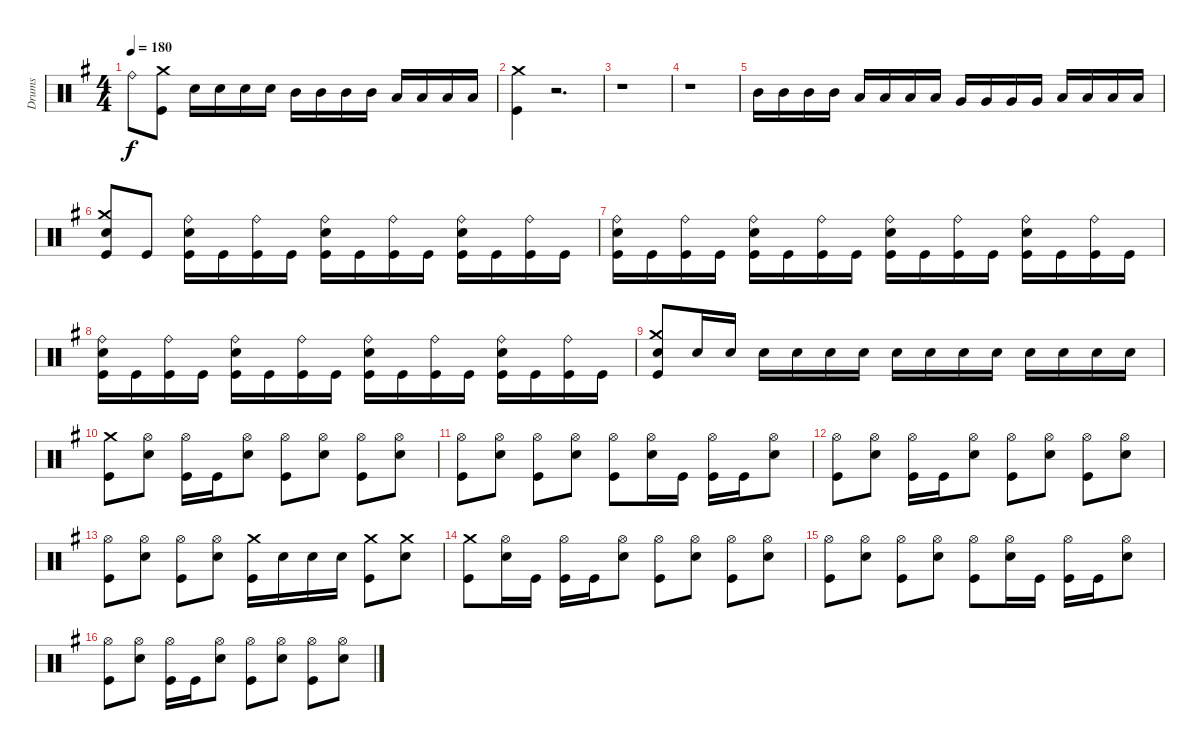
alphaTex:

\track ("Drums" "Drums") {instrument percussion}
\staff {score}
\articulation defaults
\ts (4 4)
\tempo 180
\clef neutral
\ks g "Ride (bell)"{t}.8{dy f}
("Kick (hit)" "Crash medium (hit)").8 "Electric Snare (hit)".16 "Electric Snare (hit)".16 "Electric Snare (hit)".16 "Electric Snare (hit)".16 "Mid Tom (hit)".16 "Mid Tom (hit)".16 "Mid Tom (hit)".16 "Mid Tom (hit)".16 "Low Tom (hit)".16 "Low Tom (hit)".16 "Low Tom (hit)".16 "Low Tom (hit)".16 |
("Kick (hit)" "Crash medium (hit)").4 r.2{d} |
r.1 |
r.1 |
"Mid Tom (hit)".16 "Mid Tom (hit)".16 "Mid Tom (hit)".16 "Mid Tom (hit)".16 "Low Tom (hit)".16 "Low Tom (hit)".16 "Low Tom (hit)".16 "Low Tom (hit)".16 "Very Low Tom (hit)".16 "Very Low Tom (hit)".16 "Very Low Tom (hit)".16 "Very Low Tom (hit)".16 "Low Floor Tom (hit)".16 "Low Floor Tom (hit)".16 "Low Floor Tom (hit)".16 "Low Floor Tom (hit)".16 |
("Kick (hit)" "Electric Snare (hit)" "Crash medium (hit)").8 "Kick (hit)".8 ("Kick (hit)" "Electric Snare (hit)" "Ride (bell)").16 "Kick (hit)".16 ("Kick (hit)" "Ride (bell)").16 "Kick (hit)".16 ("Kick (hit)" "Electric Snare (hit)" "Ride (bell)").16 "Kick (hit)".16 ("Kick (hit)" "Ride (bell)").16 "Kick (hit)".16 ("Kick (hit)" "Electric Snare (hit)" "Ride (bell)").16 "Kick (hit)".16 ("Kick (hit)" "Ride (bell)").16 "Kick (hit)".16 |
("Kick (hit)" "Electric Snare (hit)" "Ride (bell)").16 "Kick (hit)".16 ("Kick (hit)" "Ride (bell)").16 "Kick (hit)".16 ("Kick (hit)" "Electric Snare (hit)" "Ride (bell)").16 "Kick (hit)".16 ("Kick (hit)" "Ride (bell)").16 "Kick (hit)".16 ("Kick (hit)" "Electric Snare (hit)" "Ride (bell)").16 "Kick (hit)".16 ("Kick (hit)" "Ride (bell)").16 "Kick (hit)".16 ("Kick (hit)" "Electric Snare (hit)" "Ride (bell)").16 "Kick (hit)".16 ("Kick (hit)" "Ride (bell)").16 "Kick (hit)".16 |
("Kick (hit)" "Electric Snare (hit)" "Ride (bell)").16 "Kick (hit)".16 ("Kick (hit)" "Ride (bell)").16 "Kick (hit)".16 ("Kick (hit)" "Electric Snare (hit)" "Ride (bell)").16 "Kick (hit)".16 ("Kick (hit)" "Ride (bell)").16 "Kick (hit)".16 ("Kick (hit)" "Electric Snare (hit)" "Ride (bell)").16 "Kick (hit)".16 ("Kick (hit)" "Ride (bell)").16 "Kick (hit)".16 ("Kick (hit)" "Electric Snare (hit)" "Ride (bell)").16 "Kick (hit)".16 ("Kick (hit)" "Ride (bell)").16 "Kick (hit)".16 |
("Kick (hit)" "Electric Snare (hit)" "Crash medium (hit)").8 "Electric Snare (hit)".16 "Electric Snare (hit)".16 "Electric Snare (hit)".16 "Electric Snare (hit)".16 "Electric Snare (hit)".16 "Electric Snare (hit)".16 "Electric Snare (hit)".16 "Electric Snare (hit)".16 "Electric Snare (hit)".16 "Electric Snare (hit)".16 "Electric Snare (hit)".16 "Electric Snare (hit)".16 "Electric Snare (hit)".16 "Electric Snare (hit)".16 |
("Kick (hit)" "Crash medium (hit)").8 ("Electric Snare (hit)" "Hi-Hat (open)").8 ("Kick (hit)" "Hi-Hat (open)").16 "Kick (hit)".16 ("Electric Snare (hit)" "Hi-Hat (open)").8 ("Kick (hit)" "Hi-Hat (open)").8 ("Electric Snare (hit)" "Hi-Hat (open)").8 ("Kick (hit)" "Hi-Hat (open)").8 ("Electric Snare (hit)" "Hi-Hat (open)").8 |
("Kick (hit)" "Hi-Hat (open)").8 ("Electric Snare (hit)" "Hi-Hat (open)").8 ("Kick (hit)" "Hi-Hat (open)").8 ("Electric Snare (hit)" "Hi-Hat (open)").8 ("Kick (hit)" "Hi-Hat (open)").8 ("Electric Snare (hit)" "Hi-Hat (open)").16 "Kick (hit)".16 ("Kick (hit)" "Hi-Hat (open)").16 "Kick (hit)".16 ("Electric Snare (hit)" "Hi-Hat (open)").8 |
("Kick (hit)" "Hi-Hat (open)").8 ("Electric Snare (hit)" "Hi-Hat (open)").8 ("Kick (hit)" "Hi-Hat (open)").16 "Kick (hit)".16 ("Electric Snare (hit)" "Hi-Hat (open)").8 ("Kick (hit)" "Hi-Hat (open)").8 ("Electric Snare (hit)" "Hi-Hat (open)").8 ("Kick (hit)" "Hi-Hat (open)").8 ("Electric Snare (hit)" "Hi-Hat (open)").8 |
("Kick (hit)" "Hi-Hat (open)").8 ("Electric Snare (hit)" "Hi-Hat (open)").8 ("Kick (hit)" "Hi-Hat (open)").8 ("Electric Snare (hit)" "Hi-Hat (open)").8 ("Kick (hit)" "Crash medium (hit)").16 "Electric Snare (hit)".16 "Electric Snare (hit)".16 "Electric Snare (hit)".16 ("Kick (hit)" "Crash medium (hit)").8 ("Electric Snare (hit)" "Crash medium (hit)").8 |
("Kick (hit)" "Crash medium (hit)").8 ("Electric Snare (hit)" "Hi-Hat (open)").16 "Kick (hit)".16 ("Kick (hit)" "Hi-Hat (open)").16 "Kick (hit)".16 ("Electric Snare (hit)" "Hi-Hat (open)").8 ("Kick (hit)" "Hi-Hat (open)").8 ("Electric Snare (hit)" "Hi-Hat (open)").8 ("Kick (hit)" "Hi-Hat (open)").8 ("Electric Snare (hit)" "Hi-Hat (open)").8 |
("Kick (hit)" "Hi-Hat (open)").8 ("Electric Snare (hit)" "Hi-Hat (open)").8 ("Kick (hit)" "Hi-Hat (open)").8 ("Electric Snare (hit)" "Hi-Hat (open)").8 ("Kick (hit)" "Hi-Hat (open)").8 ("Electric Snare (hit)" "Hi-Hat (open)").16 "Kick (hit)".16 ("Kick (hit)" "Hi-Hat (open)").16 "Kick (hit)".16 ("Electric Snare (hit)" "Hi-Hat (open)").8 |
("Kick (hit)" "Hi-Hat (open)").8 ("Electric Snare (hit)" "Hi-Hat (open)").8 ("Kick (hit)" "Hi-Hat (open)").16 "Kick (hit)".16 ("Electric Snare (hit)" "Hi-Hat (open)").8 ("Kick (hit)" "Hi-Hat (open)").8 ("Electric Snare (hit)" "Hi-Hat (open)").8 ("Kick (hit)" "Hi-Hat (open)").8 ("Electric Snare (hit)" "Hi-Hat (open)").8
